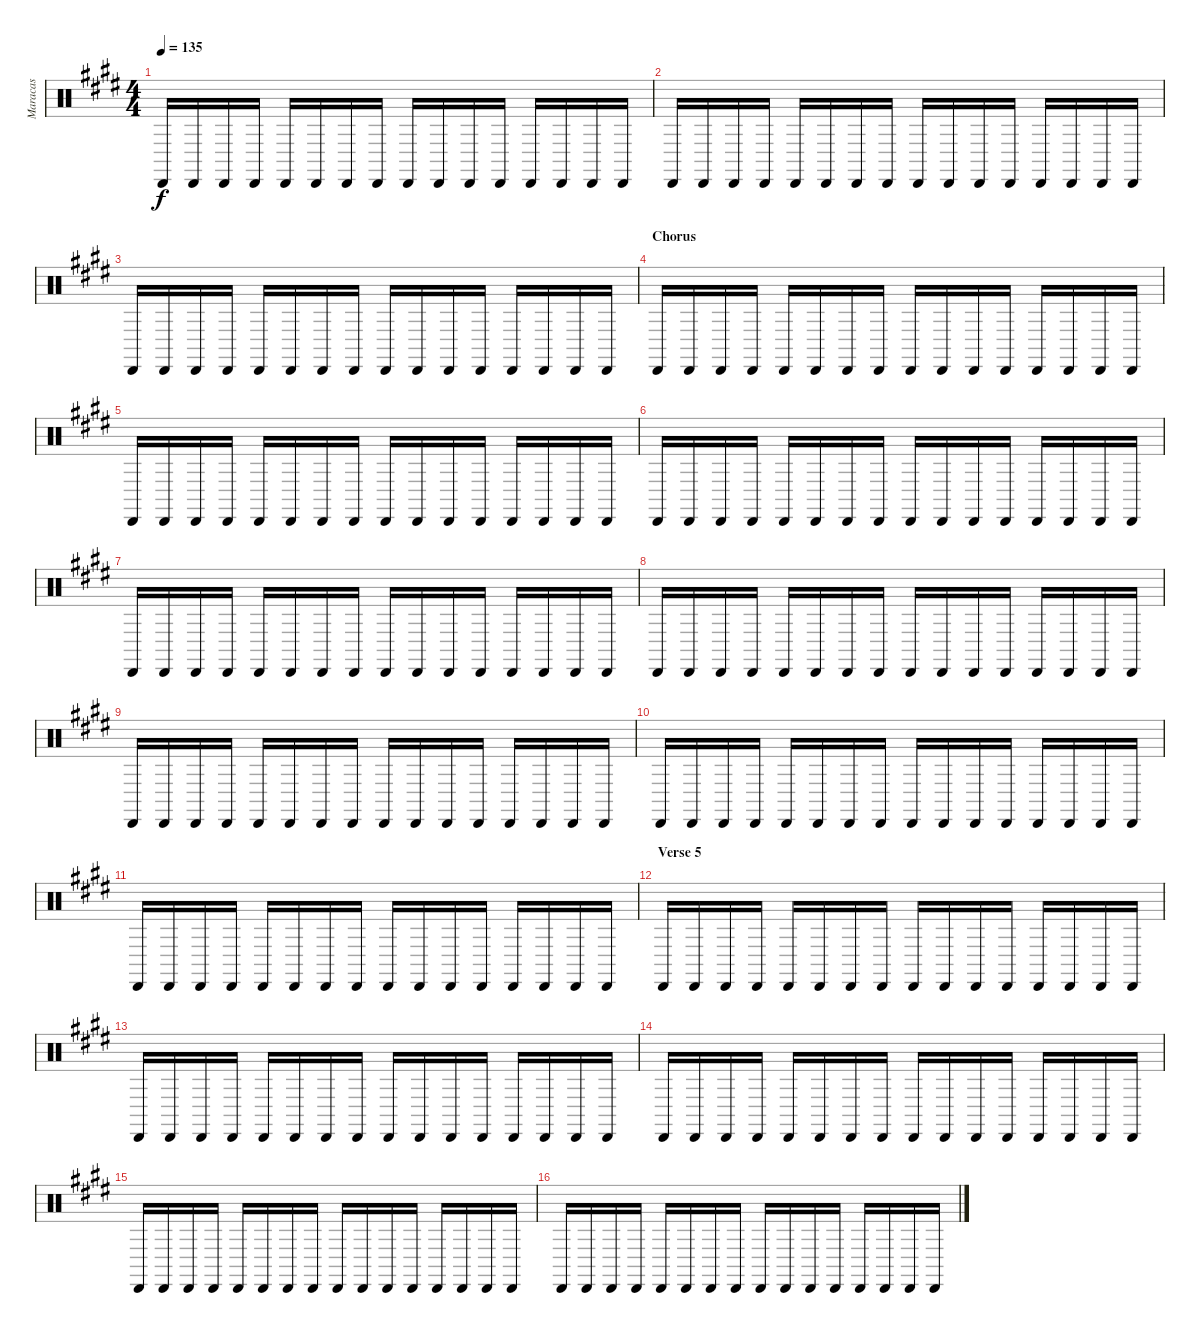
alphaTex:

\track ("Maracas" "Maracas") {instrument percussion}
\staff {score}
\articulation defaults
\ts (4 4)
\tempo 135
\clef neutral
\ks e "Cabasa (hit)".16{dy f} "Cabasa (hit)".16 "Cabasa (hit)".16 "Cabasa (hit)".16 "Cabasa (hit)".16 "Cabasa (hit)".16 "Cabasa (hit)".16 "Cabasa (hit)".16 "Cabasa (hit)".16 "Cabasa (hit)".16 "Cabasa (hit)".16 "Cabasa (hit)".16 "Cabasa (hit)".16 "Cabasa (hit)".16 "Cabasa (hit)".16 "Cabasa (hit)".16
|
"Cabasa (hit)".16 "Cabasa (hit)".16 "Cabasa (hit)".16 "Cabasa (hit)".16 "Cabasa (hit)".16 "Cabasa (hit)".16 "Cabasa (hit)".16 "Cabasa (hit)".16 "Cabasa (hit)".16 "Cabasa (hit)".16 "Cabasa (hit)".16 "Cabasa (hit)".16 "Cabasa (hit)".16 "Cabasa (hit)".16 "Cabasa (hit)".16 "Cabasa (hit)".16 |
"Cabasa (hit)".16 "Cabasa (hit)".16 "Cabasa (hit)".16 "Cabasa (hit)".16 "Cabasa (hit)".16 "Cabasa (hit)".16 "Cabasa (hit)".16 "Cabasa (hit)".16 "Cabasa (hit)".16 "Cabasa (hit)".16 "Cabasa (hit)".16 "Cabasa (hit)".16 "Cabasa (hit)".16 "Cabasa (hit)".16 "Cabasa (hit)".16 "Cabasa (hit)".16 |
\section ("" "Chorus")
"Cabasa (hit)".16 "Cabasa (hit)".16 "Cabasa (hit)".16 "Cabasa (hit)".16 "Cabasa (hit)".16 "Cabasa (hit)".16 "Cabasa (hit)".16 "Cabasa (hit)".16 "Cabasa (hit)".16 "Cabasa (hit)".16 "Cabasa (hit)".16 "Cabasa (hit)".16 "Cabasa (hit)".16 "Cabasa (hit)".16 "Cabasa (hit)".16 "Cabasa (hit)".16 |
"Cabasa (hit)".16 "Cabasa (hit)".16 "Cabasa (hit)".16 "Cabasa (hit)".16 "Cabasa (hit)".16 "Cabasa (hit)".16 "Cabasa (hit)".16 "Cabasa (hit)".16 "Cabasa (hit)".16 "Cabasa (hit)".16 "Cabasa (hit)".16 "Cabasa (hit)".16 "Cabasa (hit)".16 "Cabasa (hit)".16 "Cabasa (hit)".16 "Cabasa (hit)".16 |
"Cabasa (hit)".16 "Cabasa (hit)".16 "Cabasa (hit)".16 "Cabasa (hit)".16 "Cabasa (hit)".16 "Cabasa (hit)".16 "Cabasa (hit)".16 "Cabasa (hit)".16 "Cabasa (hit)".16 "Cabasa (hit)".16 "Cabasa (hit)".16 "Cabasa (hit)".16 "Cabasa (hit)".16 "Cabasa (hit)".16 "Cabasa (hit)".16 "Cabasa (hit)".16 |
"Cabasa (hit)".16 "Cabasa (hit)".16 "Cabasa (hit)".16 "Cabasa (hit)".16 "Cabasa (hit)".16 "Cabasa (hit)".16 "Cabasa (hit)".16 "Cabasa (hit)".16 "Cabasa (hit)".16 "Cabasa (hit)".16 "Cabasa (hit)".16 "Cabasa (hit)".16 "Cabasa (hit)".16 "Cabasa (hit)".16 "Cabasa (hit)".16 "Cabasa (hit)".16 |
"Cabasa (hit)".16 "Cabasa (hit)".16 "Cabasa (hit)".16 "Cabasa (hit)".16 "Cabasa (hit)".16 "Cabasa (hit)".16 "Cabasa (hit)".16 "Cabasa (hit)".16 "Cabasa (hit)".16 "Cabasa (hit)".16 "Cabasa (hit)".16 "Cabasa (hit)".16 "Cabasa (hit)".16 "Cabasa (hit)".16 "Cabasa (hit)".16 "Cabasa (hit)".16 |
"Cabasa (hit)".16 "Cabasa (hit)".16 "Cabasa (hit)".16 "Cabasa (hit)".16 "Cabasa (hit)".16 "Cabasa (hit)".16 "Cabasa (hit)".16 "Cabasa (hit)".16 "Cabasa (hit)".16 "Cabasa (hit)".16 "Cabasa (hit)".16 "Cabasa (hit)".16 "Cabasa (hit)".16 "Cabasa (hit)".16 "Cabasa (hit)".16 "Cabasa (hit)".16 |
"Cabasa (hit)".16 "Cabasa (hit)".16 "Cabasa (hit)".16 "Cabasa (hit)".16 "Cabasa (hit)".16 "Cabasa (hit)".16 "Cabasa (hit)".16 "Cabasa (hit)".16 "Cabasa (hit)".16 "Cabasa (hit)".16 "Cabasa (hit)".16 "Cabasa (hit)".16 "Cabasa (hit)".16 "Cabasa (hit)".16 "Cabasa (hit)".16 "Cabasa (hit)".16 |
"Cabasa (hit)".16 "Cabasa (hit)".16 "Cabasa (hit)".16 "Cabasa (hit)".16 "Cabasa (hit)".16 "Cabasa (hit)".16 "Cabasa (hit)".16 "Cabasa (hit)".16 "Cabasa (hit)".16 "Cabasa (hit)".16 "Cabasa (hit)".16 "Cabasa (hit)".16 "Cabasa (hit)".16 "Cabasa (hit)".16 "Cabasa (hit)".16 "Cabasa (hit)".16 |
\section ("" "Verse 5")
"Cabasa (hit)".16 "Cabasa (hit)".16 "Cabasa (hit)".16 "Cabasa (hit)".16 "Cabasa (hit)".16 "Cabasa (hit)".16 "Cabasa (hit)".16 "Cabasa (hit)".16 "Cabasa (hit)".16 "Cabasa (hit)".16 "Cabasa (hit)".16 "Cabasa (hit)".16 "Cabasa (hit)".16 "Cabasa (hit)".16 "Cabasa (hit)".16 "Cabasa (hit)".16 |
"Cabasa (hit)".16 "Cabasa (hit)".16 "Cabasa (hit)".16 "Cabasa (hit)".16 "Cabasa (hit)".16 "Cabasa (hit)".16 "Cabasa (hit)".16 "Cabasa (hit)".16 "Cabasa (hit)".16 "Cabasa (hit)".16 "Cabasa (hit)".16 "Cabasa (hit)".16 "Cabasa (hit)".16 "Cabasa (hit)".16 "Cabasa (hit)".16 "Cabasa (hit)".16 |
"Cabasa (hit)".16 "Cabasa (hit)".16 "Cabasa (hit)".16 "Cabasa (hit)".16 "Cabasa (hit)".16 "Cabasa (hit)".16 "Cabasa (hit)".16 "Cabasa (hit)".16 "Cabasa (hit)".16 "Cabasa (hit)".16 "Cabasa (hit)".16 "Cabasa (hit)".16 "Cabasa (hit)".16 "Cabasa (hit)".16 "Cabasa (hit)".16 "Cabasa (hit)".16 |
"Cabasa (hit)".16 "Cabasa (hit)".16 "Cabasa (hit)".16 "Cabasa (hit)".16 "Cabasa (hit)".16 "Cabasa (hit)".16 "Cabasa (hit)".16 "Cabasa (hit)".16 "Cabasa (hit)".16 "Cabasa (hit)".16 "Cabasa (hit)".16 "Cabasa (hit)".16 "Cabasa (hit)".16 "Cabasa (hit)".16 "Cabasa (hit)".16 "Cabasa (hit)".16 |
"Cabasa (hit)".16 "Cabasa (hit)".16 "Cabasa (hit)".16 "Cabasa (hit)".16 "Cabasa (hit)".16 "Cabasa (hit)".16 "Cabasa (hit)".16 "Cabasa (hit)".16 "Cabasa (hit)".16 "Cabasa (hit)".16 "Cabasa (hit)".16 "Cabasa (hit)".16 "Cabasa (hit)".16 "Cabasa (hit)".16 "Cabasa (hit)".16 "Cabasa (hit)".16
